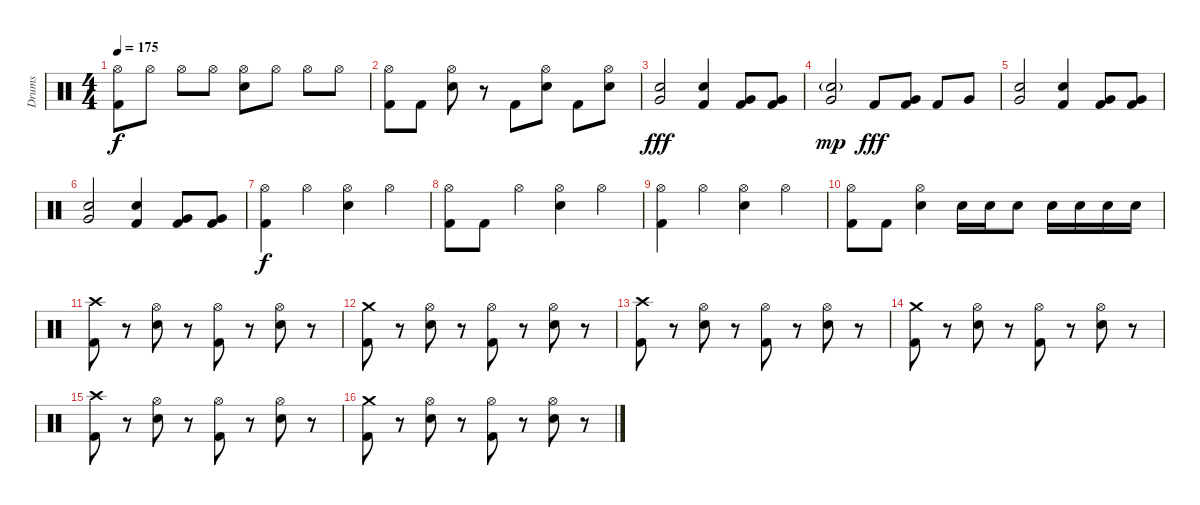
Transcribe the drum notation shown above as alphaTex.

\track ("Drums" "Drums") {instrument percussion}
\staff {score}
\articulation defaults
\ts (4 4)
\tempo 175
\clef neutral
\ks c
("Kick (hit) 2" "Hi-Hat (open)").8{dy f} "Hi-Hat (open)".8 "Hi-Hat (open)".8 "Hi-Hat (open)".8 ("Electric Snare (hit)" "Hi-Hat (open)").8 "Hi-Hat (open)".8 "Hi-Hat (open)".8 "Hi-Hat (open)".8 |
("Kick (hit) 2" "Hi-Hat (open)").8 "Kick (hit) 2".8 ("Electric Snare (hit)" "Hi-Hat (open)").8 r.8 "Kick (hit) 2".8 ("Electric Snare (hit)" "Hi-Hat (open)").8 "Kick (hit) 2".8 ("Electric Snare (hit)" "Hi-Hat (open)").8 |
("Very Low Tom (hit)" "Electric Snare (hit)").2{dy fff} ("Hand Clap (hit)" "Kick (hit) 2").4 ("Kick (hit) 2" "Very Low Tom (hit)").8 ("Kick (hit) 2" "Very Low Tom (hit)").8 |
("Very Low Tom (hit)" "Electric Snare (hit)"{g}).2{dy mp} "Kick (hit) 2".8{dy fff} ("Kick (hit) 2" "Very Low Tom (hit)").8 "Kick (hit) 2".8 "Very Low Tom (hit)".8 |
("Very Low Tom (hit)" "Electric Snare (hit)").2 ("Hand Clap (hit)" "Kick (hit) 2").4 ("Kick (hit) 2" "Very Low Tom (hit)").8 ("Kick (hit) 2" "Very Low Tom (hit)").8 |
("Very Low Tom (hit)" "Electric Snare (hit)").2 ("Hand Clap (hit)" "Kick (hit) 2").4 ("Kick (hit) 2" "Very Low Tom (hit)").8 ("Kick (hit) 2" "Very Low Tom (hit)").8 |
("Kick (hit) 2" "Hi-Hat (open)").4{dy f} "Hi-Hat (open)".4 ("Electric Snare (hit)" "Hi-Hat (open)").4 "Hi-Hat (open)".4 |
("Kick (hit) 2" "Hi-Hat (open)").8 "Kick (hit) 2".8 "Hi-Hat (open)".4 ("Electric Snare (hit)" "Hi-Hat (open)").4 "Hi-Hat (open)".4 |
("Kick (hit) 2" "Hi-Hat (open)").4 "Hi-Hat (open)".4 ("Electric Snare (hit)" "Hi-Hat (open)").4 "Hi-Hat (open)".4 |
("Kick (hit) 2" "Hi-Hat (open)").8 "Kick (hit) 2".8 ("Electric Snare (hit)" "Hi-Hat (open)").4 "Electric Snare (hit)".16 "Electric Snare (hit)".16 "Electric Snare (hit)".8 "Electric Snare (hit)".16 "Electric Snare (hit)".16 "Electric Snare (hit)".16 "Electric Snare (hit)".16 |
("Kick (hit) 2" "Crash high (hit)").8 r.8 ("Electric Snare (hit)" "Hi-Hat (open)").8 r.8 ("Kick (hit) 2" "Hi-Hat (open)").8 r.8 ("Electric Snare (hit)" "Hi-Hat (open)").8 r.8 |
("Kick (hit) 2" "Crash medium (hit)").8 r.8 ("Electric Snare (hit)" "Hi-Hat (open)").8 r.8 ("Kick (hit) 2" "Hi-Hat (open)").8 r.8 ("Electric Snare (hit)" "Hi-Hat (open)").8 r.8 |
("Kick (hit) 2" "Crash high (hit)").8 r.8 ("Electric Snare (hit)" "Hi-Hat (open)").8 r.8 ("Kick (hit) 2" "Hi-Hat (open)").8 r.8 ("Electric Snare (hit)" "Hi-Hat (open)").8 r.8 |
("Kick (hit) 2" "Crash medium (hit)").8 r.8 ("Electric Snare (hit)" "Hi-Hat (open)").8 r.8 ("Kick (hit) 2" "Hi-Hat (open)").8 r.8 ("Electric Snare (hit)" "Hi-Hat (open)").8 r.8 |
("Kick (hit) 2" "Crash high (hit)").8 r.8 ("Electric Snare (hit)" "Hi-Hat (open)").8 r.8 ("Kick (hit) 2" "Hi-Hat (open)").8 r.8 ("Electric Snare (hit)" "Hi-Hat (open)").8 r.8 |
("Kick (hit) 2" "Crash medium (hit)").8 r.8 ("Electric Snare (hit)" "Hi-Hat (open)").8 r.8 ("Kick (hit) 2" "Hi-Hat (open)").8 r.8 ("Electric Snare (hit)" "Hi-Hat (open)").8 r.8
